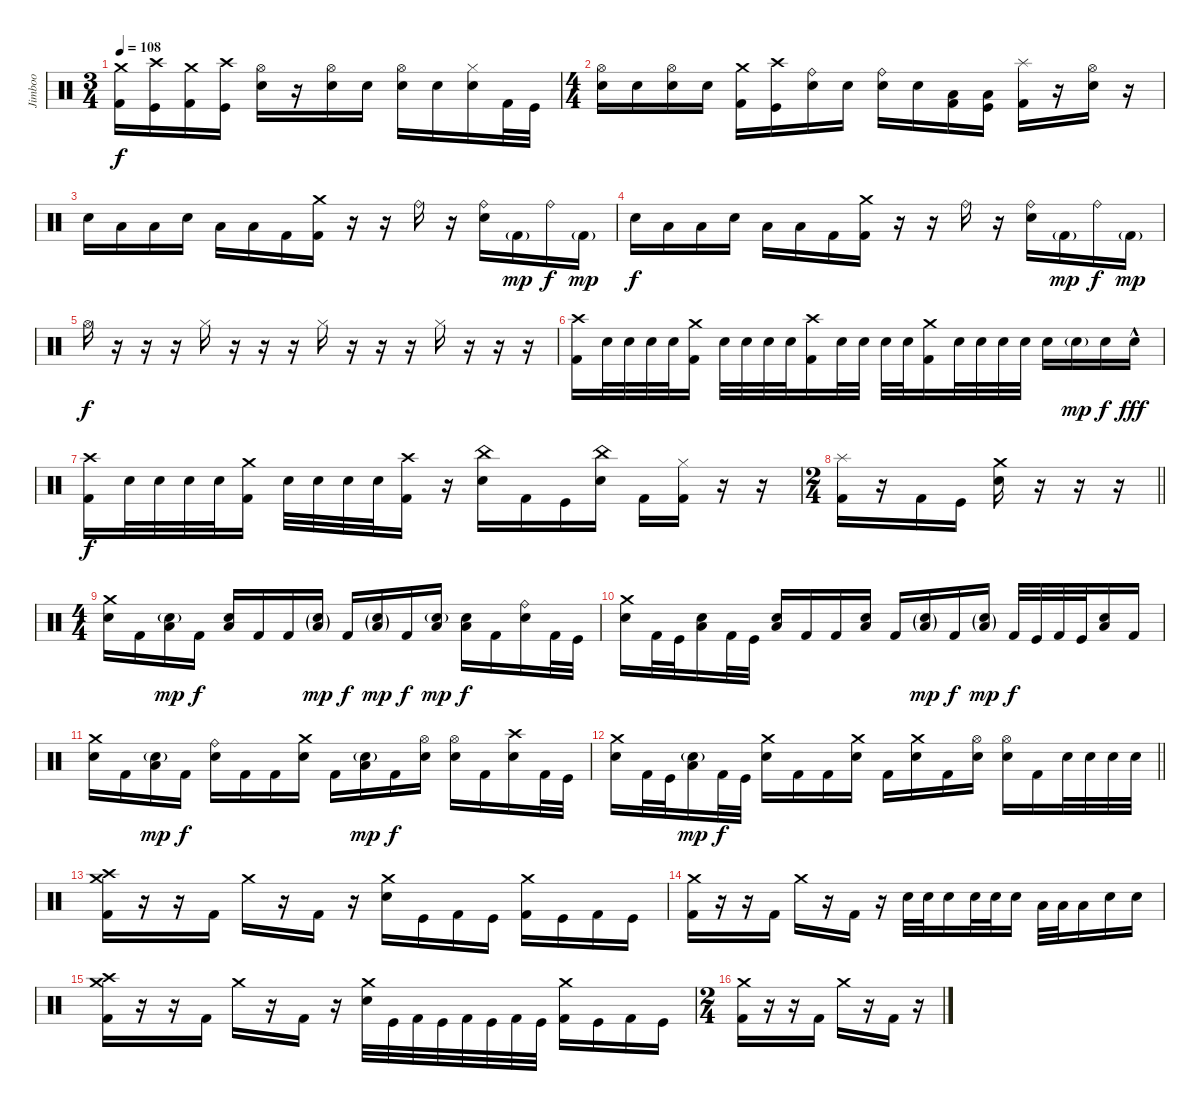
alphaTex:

\track ("Jimboo" "Jimboo") {instrument percussion}
\staff
\articulation defaults
\ts (3 4)
\tempo 108
\clef neutral
\ks c
("Kick (hit) 2" "Crash medium (hit)").16{dy f} ("Kick (hit)" "Crash high (hit)").16 ("Kick (hit) 2" "Crash medium (hit)").16 ("Kick (hit)" "Crash high (hit)").16 ("Electric Snare (hit)" "Hi-Hat (open)").16 r.16 ("Electric Snare (hit)" "Hi-Hat (open)").16 "Electric Snare (hit)".16 ("Electric Snare (hit)" "Hi-Hat (open)").16 "Electric Snare (hit)".16 ("Electric Snare (hit)" "Hi-Hat (closed)").16 "Kick (hit) 2".32 "Kick (hit)".32 |
\ts (4 4)
("Electric Snare (hit)" "Hi-Hat (open)").16 "Electric Snare (hit)".16 ("Electric Snare (hit)" "Hi-Hat (open)").16 "Electric Snare (hit)".16 ("Kick (hit) 2" "Crash medium (hit)").16 ("Kick (hit)" "Crash high (hit)").16 ("Electric Snare (hit)" "Ride (bell)").16 "Electric Snare (hit)".16 ("Electric Snare (hit)" "Ride (bell)").16 "Electric Snare (hit)".16 ("Kick (hit) 2" "Low Tom (hit)").16 ("Kick (hit)" "Low Floor Tom (hit)").16 ("Kick (hit) 2" "Splash (hit)").16 r.16 ("Electric Snare (hit)" "Hi-Hat (open)").16 r.16 |
"Electric Snare (hit)".16 "Low Tom (hit)".16 "Low Floor Tom (hit)".16 "Electric Snare (hit)".16 "Low Floor Tom (hit)".16 "Low Floor Tom (hit)".16 "Kick (hit) 2".16 ("Kick (hit) 2" "Crash medium (hit)").16 r.16 r.16 "Ride (bell)".16 r.16 ("Electric Snare (hit)" "Ride (bell)").16 "Kick (hit) 2"{g}.16{dy mp} "Ride (bell)".16{dy f} "Kick (hit) 2"{g}.16{dy mp} |
"Electric Snare (hit)".16{dy f} "Low Tom (hit)".16 "Low Floor Tom (hit)".16 "Electric Snare (hit)".16 "Low Floor Tom (hit)".16 "Low Floor Tom (hit)".16 "Kick (hit) 2".16 ("Kick (hit) 2" "Crash medium (hit)").16 r.16 r.16 "Ride (bell)".16 r.16 ("Electric Snare (hit)" "Ride (bell)").16 "Kick (hit) 2"{g}.16{dy mp} "Ride (bell)".16{dy f} "Kick (hit) 2"{g}.16{dy mp} |
"Hi-Hat (open)".16{dy f} r.16 r.16 r.16 "Hi-Hat (closed)".16 r.16 r.16 r.16 "Hi-Hat (closed)".16 r.16 r.16 r.16 "Hi-Hat (closed)".16 r.16 r.16 r.16 |
("Kick (hit) 2" "Crash high (hit)").16 "Electric Snare (hit)".32 "Electric Snare (hit)".32 "Electric Snare (hit)".32 "Electric Snare (hit)".32 ("Kick (hit) 2" "Crash medium (hit)").16 "Electric Snare (hit)".32 "Electric Snare (hit)".32 "Electric Snare (hit)".32 "Electric Snare (hit)".32 ("Kick (hit) 2" "Crash high (hit)").16 "Electric Snare (hit)".32 "Electric Snare (hit)".32 "Electric Snare (hit)".32 "Electric Snare (hit)".32 ("Kick (hit) 2" "Crash medium (hit)").16 "Electric Snare (hit)".32 "Electric Snare (hit)".32 "Electric Snare (hit)".32 "Electric Snare (hit)".32 "Electric Snare (hit)".16 "Electric Snare (hit)"{g}.16{dy mp} "Electric Snare (hit)".16{dy f} "Electric Snare (hit)"{hac}.16{dy fff} |
("Kick (hit) 2" "Crash high (hit)").16{dy f} "Electric Snare (hit)".32 "Electric Snare (hit)".32 "Electric Snare (hit)".32 "Electric Snare (hit)".32 ("Kick (hit) 2" "Crash medium (hit)").16 "Electric Snare (hit)".32 "Electric Snare (hit)".32 "Electric Snare (hit)".32 "Electric Snare (hit)".32 ("Kick (hit) 2" "Crash high (hit)").16 r.16 ("Electric Snare (hit)" "China (hit)").16 "Kick (hit) 2".16 "Kick (hit)".16 ("Electric Snare (hit)" "China (hit)").16 "Kick (hit) 2".16 ("Kick (hit) 2" "Hi-Hat (closed)").16 r.16 r.16 |
\ts (2 4)
\barLineRight lightlight
("Kick (hit) 2" "Splash (hit)").16 r.16 "Kick (hit) 2".16 "Kick (hit)".16 ("Electric Snare (hit)" "Crash medium (hit)").16 r.16 r.16 r.16 |
\ts (4 4)
("Crash medium (hit)" "Electric Snare (hit)").16 "Kick (hit) 2".16 ("Low Floor Tom (hit)" "Electric Snare (hit)"{g}).16{dy mp} "Kick (hit) 2".16{dy f} ("Low Floor Tom (hit)" "Electric Snare (hit)").16 "Kick (hit) 2".16 "Kick (hit) 2".16 ("Low Floor Tom (hit)"{g} "Electric Snare (hit)"{g}).16{dy mp} "Kick (hit) 2".16{dy f} ("Low Floor Tom (hit)"{g} "Electric Snare (hit)"{g}).16{dy mp} "Kick (hit) 2".16{dy f} ("Low Floor Tom (hit)" "Electric Snare (hit)"{g}).16{dy mp} ("Low Floor Tom (hit)" "Electric Snare (hit)").16{dy f} "Kick (hit) 2".16 ("Ride (bell)" "Electric Snare (hit)").16 "Kick (hit) 2".32 "Kick (hit)".32 |
("Crash medium (hit)" "Electric Snare (hit)").16 "Kick (hit) 2".32 "Kick (hit)".32 ("Low Floor Tom (hit)" "Electric Snare (hit)").16 "Kick (hit) 2".32 "Kick (hit)".32 ("Low Floor Tom (hit)" "Electric Snare (hit)").16 "Kick (hit) 2".16 "Kick (hit) 2".16 ("Low Floor Tom (hit)" "Electric Snare (hit)").16 "Kick (hit) 2".16 ("Low Floor Tom (hit)"{g} "Electric Snare (hit)"{g}).16{dy mp} "Kick (hit) 2".16{dy f} ("Low Floor Tom (hit)"{g} "Electric Snare (hit)"{g}).16{dy mp} "Kick (hit) 2".32{dy f} "Kick (hit)".32 "Kick (hit) 2".32 "Kick (hit)".32 ("Low Floor Tom (hit)" "Electric Snare (hit)").16 "Kick (hit) 2".16 |
("Crash medium (hit)" "Electric Snare (hit)").16 "Kick (hit) 2".16 ("Low Floor Tom (hit)" "Electric Snare (hit)"{g}).16{dy mp} "Kick (hit) 2".16{dy f} ("Ride (bell)" "Electric Snare (hit)").16 "Kick (hit) 2".16 "Kick (hit) 2".16 ("Crash medium (hit)" "Electric Snare (hit)").16 "Kick (hit) 2".16 ("Low Floor Tom (hit)" "Electric Snare (hit)"{g}).16{dy mp} "Kick (hit) 2".16{dy f} ("Hi-Hat (open)" "Electric Snare (hit)").16 ("Hi-Hat (open)" "Electric Snare (hit)").16 "Kick (hit) 2".16 ("Crash high (hit)" "Electric Snare (hit)").16 "Kick (hit) 2".32 "Kick (hit)".32 |
\barLineRight lightlight
("Crash medium (hit)" "Electric Snare (hit)").16 "Kick (hit) 2".32 "Kick (hit)".32 ("Low Floor Tom (hit)" "Electric Snare (hit)"{g}).16{dy mp} "Kick (hit) 2".32{dy f} "Kick (hit)".32 ("Crash medium (hit)" "Electric Snare (hit)").16 "Kick (hit) 2".16 "Kick (hit) 2".16 ("Crash medium (hit)" "Electric Snare (hit)").16 "Kick (hit) 2".16 ("Crash medium (hit)" "Electric Snare (hit)").16 "Kick (hit) 2".16 ("Hi-Hat (open)" "Electric Snare (hit)").16 ("Hi-Hat (open)" "Electric Snare (hit)").16 "Kick (hit) 2".16 "Electric Snare (hit)".32 "Electric Snare (hit)".32 "Electric Snare (hit)".32 "Electric Snare (hit)".32 |
("Kick (hit) 2" "Crash medium (hit)" "Crash high (hit)").16 r.16 r.16 "Kick (hit) 2".16 "Crash medium (hit)".16 r.16 "Kick (hit) 2".16 r.16 ("Electric Snare (hit)" "Crash medium (hit)").16 "Kick (hit)".16 "Kick (hit) 2".16 "Kick (hit)".16 ("Kick (hit) 2" "Crash medium (hit)").16 "Kick (hit)".16 "Kick (hit) 2".16 "Kick (hit)".16 |
("Kick (hit) 2" "Crash medium (hit)").16 r.16 r.16 "Kick (hit) 2".16 "Crash medium (hit)".16 r.16 "Kick (hit) 2".16 r.16 "Electric Snare (hit)".32 "Electric Snare (hit)".32 "Electric Snare (hit)".16 "Electric Snare (hit)".32 "Electric Snare (hit)".32 "Electric Snare (hit)".16 "Low Tom (hit)".32 "Low Tom (hit)".32 "Low Tom (hit)".16 "Electric Snare (hit)".16 "Electric Snare (hit)".16 |
("Kick (hit) 2" "Crash medium (hit)" "Crash high (hit)").16 r.16 r.16 "Kick (hit) 2".16 "Crash medium (hit)".16 r.16 "Kick (hit) 2".16 r.16 ("Electric Snare (hit)" "Crash medium (hit)").32 "Kick (hit)".32 "Kick (hit) 2".32 "Kick (hit)".32 "Kick (hit) 2".32 "Kick (hit)".32 "Kick (hit) 2".32 "Kick (hit)".32 ("Kick (hit) 2" "Crash medium (hit)").16 "Kick (hit)".16 "Kick (hit) 2".16 "Kick (hit)".16 |
\ts (2 4)
("Kick (hit) 2" "Crash medium (hit)").16 r.16 r.16 "Kick (hit) 2".16 "Crash medium (hit)".16 r.16 "Kick (hit) 2".16 r.16
